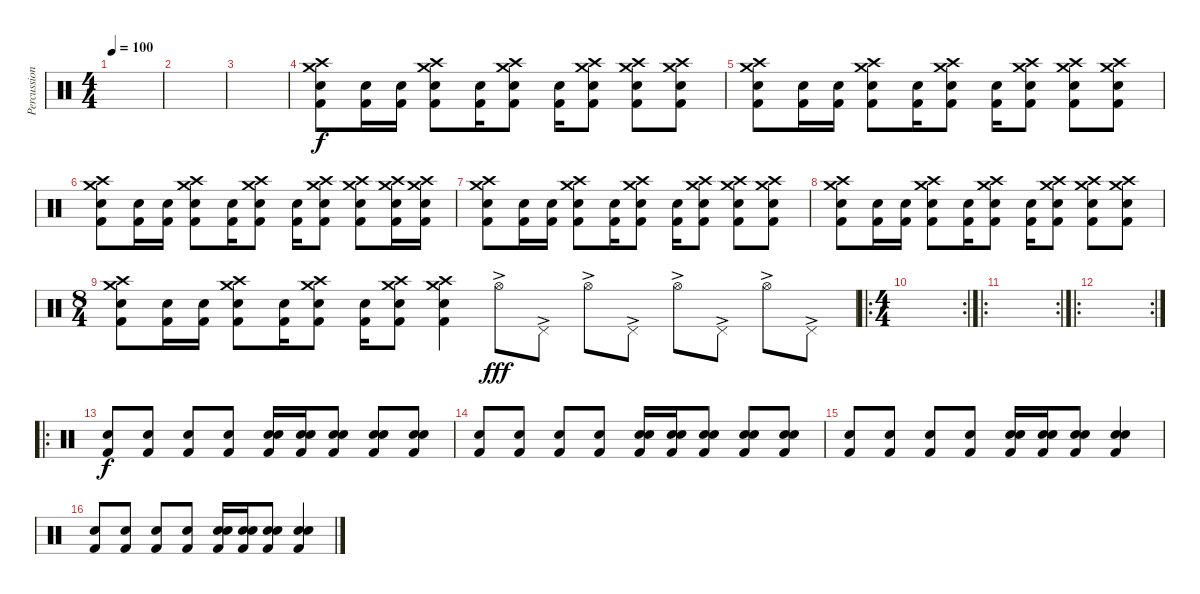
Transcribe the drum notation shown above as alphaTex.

\track ("Percussion" "Percussion") {instrument percussion}
\staff {score}
\articulation defaults
\ts (4 4)
\tempo 100
\clef neutral
\ks c
|
|
|
("Crash high (hit)" "Kick (hit) 2" "Electric Snare (hit)" "Crash medium (hit)").8 ("Kick (hit) 2" "Electric Snare (hit)").16 ("Kick (hit) 2" "Electric Snare (hit)").16 ("Crash high (hit)" "Kick (hit) 2" "Electric Snare (hit)" "Crash medium (hit)").8 ("Kick (hit) 2" "Electric Snare (hit)").16 ("Crash high (hit)" "Kick (hit) 2" "Electric Snare (hit)" "Crash medium (hit)").8 ("Kick (hit) 2" "Electric Snare (hit)").16 ("Crash high (hit)" "Kick (hit) 2" "Electric Snare (hit)" "Crash medium (hit)").8 ("Crash high (hit)" "Kick (hit) 2" "Electric Snare (hit)" "Crash medium (hit)").8 ("Crash high (hit)" "Kick (hit) 2" "Electric Snare (hit)" "Crash medium (hit)").8 |
("Crash high (hit)" "Kick (hit) 2" "Electric Snare (hit)" "Crash medium (hit)").8 ("Kick (hit) 2" "Electric Snare (hit)").16 ("Kick (hit) 2" "Electric Snare (hit)").16 ("Crash high (hit)" "Kick (hit) 2" "Electric Snare (hit)" "Crash medium (hit)").8 ("Kick (hit) 2" "Electric Snare (hit)").16 ("Crash high (hit)" "Kick (hit) 2" "Electric Snare (hit)" "Crash medium (hit)").8 ("Kick (hit) 2" "Electric Snare (hit)").16 ("Crash high (hit)" "Kick (hit) 2" "Electric Snare (hit)" "Crash medium (hit)").8 ("Crash high (hit)" "Kick (hit) 2" "Electric Snare (hit)" "Crash medium (hit)").8 ("Crash high (hit)" "Kick (hit) 2" "Electric Snare (hit)" "Crash medium (hit)").8 |
("Crash high (hit)" "Kick (hit) 2" "Electric Snare (hit)" "Crash medium (hit)").8 ("Kick (hit) 2" "Electric Snare (hit)").16 ("Kick (hit) 2" "Electric Snare (hit)").16 ("Crash high (hit)" "Kick (hit) 2" "Electric Snare (hit)" "Crash medium (hit)").8 ("Kick (hit) 2" "Electric Snare (hit)").16 ("Crash high (hit)" "Kick (hit) 2" "Electric Snare (hit)" "Crash medium (hit)").8 ("Kick (hit) 2" "Electric Snare (hit)").16 ("Crash high (hit)" "Kick (hit) 2" "Electric Snare (hit)" "Crash medium (hit)").8 ("Crash high (hit)" "Kick (hit) 2" "Electric Snare (hit)" "Crash medium (hit)").8 ("Crash high (hit)" "Kick (hit) 2" "Electric Snare (hit)" "Crash medium (hit)").16 ("Crash high (hit)" "Kick (hit) 2" "Electric Snare (hit)" "Crash medium (hit)").16 |
("Crash high (hit)" "Kick (hit) 2" "Electric Snare (hit)" "Crash medium (hit)").8 ("Kick (hit) 2" "Electric Snare (hit)").16 ("Kick (hit) 2" "Electric Snare (hit)").16 ("Crash high (hit)" "Kick (hit) 2" "Electric Snare (hit)" "Crash medium (hit)").8 ("Kick (hit) 2" "Electric Snare (hit)").16 ("Crash high (hit)" "Kick (hit) 2" "Electric Snare (hit)" "Crash medium (hit)").8 ("Kick (hit) 2" "Electric Snare (hit)").16 ("Crash high (hit)" "Kick (hit) 2" "Electric Snare (hit)" "Crash medium (hit)").8 ("Crash high (hit)" "Kick (hit) 2" "Electric Snare (hit)" "Crash medium (hit)").8 ("Crash high (hit)" "Kick (hit) 2" "Electric Snare (hit)" "Crash medium (hit)").8 |
("Crash high (hit)" "Kick (hit) 2" "Electric Snare (hit)" "Crash medium (hit)").8 ("Kick (hit) 2" "Electric Snare (hit)").16 ("Kick (hit) 2" "Electric Snare (hit)").16 ("Crash high (hit)" "Kick (hit) 2" "Electric Snare (hit)" "Crash medium (hit)").8 ("Kick (hit) 2" "Electric Snare (hit)").16 ("Crash high (hit)" "Kick (hit) 2" "Electric Snare (hit)" "Crash medium (hit)").8 ("Kick (hit) 2" "Electric Snare (hit)").16 ("Crash high (hit)" "Kick (hit) 2" "Electric Snare (hit)" "Crash medium (hit)").8 ("Crash high (hit)" "Kick (hit) 2" "Electric Snare (hit)" "Crash medium (hit)").8 ("Crash high (hit)" "Kick (hit) 2" "Electric Snare (hit)" "Crash medium (hit)").8 |
\ts (8 4)
("Crash high (hit)" "Kick (hit) 2" "Electric Snare (hit)" "Crash medium (hit)").8 ("Kick (hit) 2" "Electric Snare (hit)").16 ("Kick (hit) 2" "Electric Snare (hit)").16 ("Crash high (hit)" "Kick (hit) 2" "Electric Snare (hit)" "Crash medium (hit)").8 ("Kick (hit) 2" "Electric Snare (hit)").16 ("Crash high (hit)" "Kick (hit) 2" "Electric Snare (hit)" "Crash medium (hit)").8 ("Kick (hit) 2" "Electric Snare (hit)").16 ("Crash high (hit)" "Kick (hit) 2" "Electric Snare (hit)" "Crash medium (hit)").8 ("Crash high (hit)" "Kick (hit) 2" "Electric Snare (hit)" "Crash medium (hit)").4 "Hi-Hat (open)"{ac}.8{dy fff} "Pedal Hi-Hat (hit)"{ac}.8 "Hi-Hat (open)"{ac}.8 "Pedal Hi-Hat (hit)"{ac}.8 "Hi-Hat (open)"{ac}.8 "Pedal Hi-Hat (hit)"{ac}.8 "Hi-Hat (open)"{ac}.8 "Pedal Hi-Hat (hit)"{ac}.8 |
\ro
\rc 2
\ts (4 4)
|
\ro
\rc 2
|
\ro
\rc 2
|
\ro
("Kick (hit) 2" "Snare (hit) 2").8{dy f} ("Kick (hit) 2" "Snare (hit) 2").8 ("Kick (hit) 2" "Snare (hit) 2").8 ("Kick (hit) 2" "Snare (hit) 2").8 ("Snare (hit) 2" "Electric Snare (hit)" "Kick (hit) 2").16 ("Snare (hit) 2" "Electric Snare (hit)" "Kick (hit) 2").16 ("Snare (hit) 2" "Electric Snare (hit)" "Kick (hit) 2").8 ("Snare (hit) 2" "Electric Snare (hit)" "Kick (hit) 2").8 ("Snare (hit) 2" "Electric Snare (hit)" "Kick (hit) 2").8 |
("Kick (hit) 2" "Snare (hit) 2").8 ("Kick (hit) 2" "Snare (hit) 2").8 ("Kick (hit) 2" "Snare (hit) 2").8 ("Kick (hit) 2" "Snare (hit) 2").8 ("Snare (hit) 2" "Electric Snare (hit)" "Kick (hit) 2").16 ("Snare (hit) 2" "Electric Snare (hit)" "Kick (hit) 2").16 ("Snare (hit) 2" "Electric Snare (hit)" "Kick (hit) 2").8 ("Snare (hit) 2" "Electric Snare (hit)" "Kick (hit) 2").8 ("Snare (hit) 2" "Electric Snare (hit)" "Kick (hit) 2").8 |
("Kick (hit) 2" "Snare (hit) 2").8 ("Kick (hit) 2" "Snare (hit) 2").8 ("Kick (hit) 2" "Snare (hit) 2").8 ("Kick (hit) 2" "Snare (hit) 2").8 ("Snare (hit) 2" "Electric Snare (hit)" "Kick (hit) 2").16 ("Snare (hit) 2" "Electric Snare (hit)" "Kick (hit) 2").16 ("Snare (hit) 2" "Electric Snare (hit)" "Kick (hit) 2").8 ("Snare (hit) 2" "Electric Snare (hit)" "Kick (hit) 2").4 |
("Kick (hit) 2" "Snare (hit) 2").8 ("Kick (hit) 2" "Snare (hit) 2").8 ("Kick (hit) 2" "Snare (hit) 2").8 ("Kick (hit) 2" "Snare (hit) 2").8 ("Snare (hit) 2" "Electric Snare (hit)" "Kick (hit) 2").16 ("Snare (hit) 2" "Electric Snare (hit)" "Kick (hit) 2").16 ("Snare (hit) 2" "Electric Snare (hit)" "Kick (hit) 2").8 ("Snare (hit) 2" "Electric Snare (hit)" "Kick (hit) 2").4
